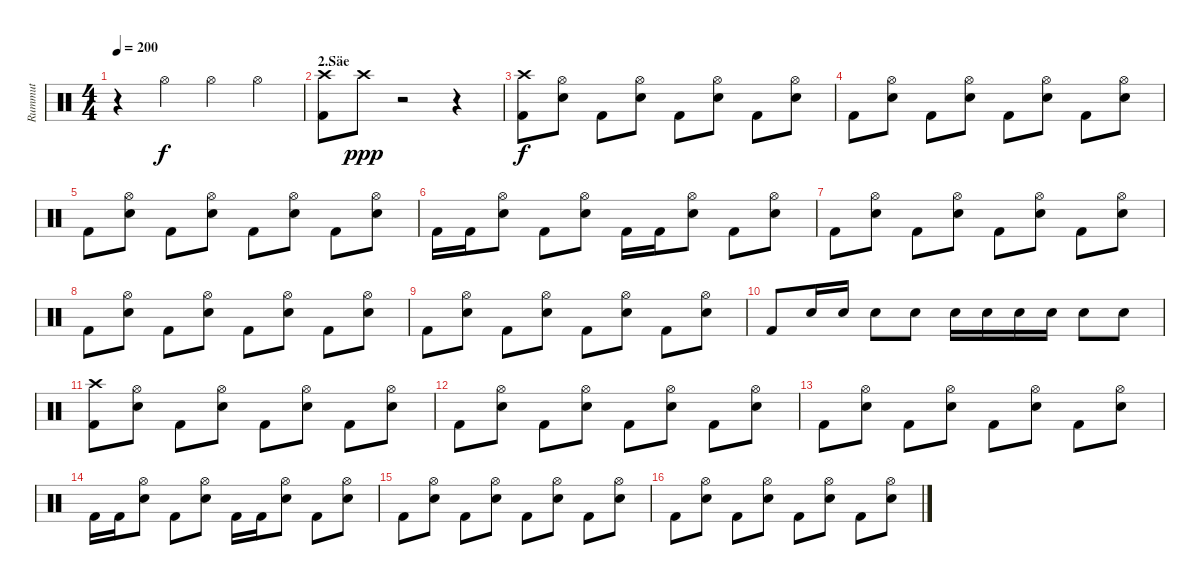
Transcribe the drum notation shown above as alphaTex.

\track ("Rummut" "Rummut") {instrument percussion}
\staff {score}
\articulation defaults
\ts (4 4)
\tempo 200
\clef neutral
\ks c
r.4{dy f} "Hi-Hat (open)".4 "Hi-Hat (open)".4 "Hi-Hat (open)".4 |
\section ("" "2.Säe")
("Crash high (hit)" "Kick (hit) 2").8 "Crash high (hit)".8{dy ppp} r.2 r.4 |
("Crash high (hit)" "Kick (hit) 2").8{dy f} ("Hi-Hat (open)" "Electric Snare (hit)").8 "Kick (hit) 2".8 ("Hi-Hat (open)" "Electric Snare (hit)").8 "Kick (hit) 2".8 ("Hi-Hat (open)" "Electric Snare (hit)").8 "Kick (hit) 2".8 ("Hi-Hat (open)" "Electric Snare (hit)").8 |
"Kick (hit) 2".8 ("Hi-Hat (open)" "Electric Snare (hit)").8 "Kick (hit) 2".8 ("Hi-Hat (open)" "Electric Snare (hit)").8 "Kick (hit) 2".8 ("Hi-Hat (open)" "Electric Snare (hit)").8 "Kick (hit) 2".8 ("Hi-Hat (open)" "Electric Snare (hit)").8 |
"Kick (hit) 2".8 ("Hi-Hat (open)" "Electric Snare (hit)").8 "Kick (hit) 2".8 ("Hi-Hat (open)" "Electric Snare (hit)").8 "Kick (hit) 2".8 ("Hi-Hat (open)" "Electric Snare (hit)").8 "Kick (hit) 2".8 ("Hi-Hat (open)" "Electric Snare (hit)").8 |
"Kick (hit) 2".16 "Kick (hit) 2".16 ("Hi-Hat (open)" "Electric Snare (hit)").8 "Kick (hit) 2".8 ("Hi-Hat (open)" "Electric Snare (hit)").8 "Kick (hit) 2".16 "Kick (hit) 2".16 ("Hi-Hat (open)" "Electric Snare (hit)").8 "Kick (hit) 2".8 ("Hi-Hat (open)" "Electric Snare (hit)").8 |
"Kick (hit) 2".8 ("Hi-Hat (open)" "Electric Snare (hit)").8 "Kick (hit) 2".8 ("Hi-Hat (open)" "Electric Snare (hit)").8 "Kick (hit) 2".8 ("Hi-Hat (open)" "Electric Snare (hit)").8 "Kick (hit) 2".8 ("Hi-Hat (open)" "Electric Snare (hit)").8 |
"Kick (hit) 2".8 ("Hi-Hat (open)" "Electric Snare (hit)").8 "Kick (hit) 2".8 ("Hi-Hat (open)" "Electric Snare (hit)").8 "Kick (hit) 2".8 ("Hi-Hat (open)" "Electric Snare (hit)").8 "Kick (hit) 2".8 ("Hi-Hat (open)" "Electric Snare (hit)").8 |
"Kick (hit) 2".8 ("Hi-Hat (open)" "Electric Snare (hit)").8 "Kick (hit) 2".8 ("Hi-Hat (open)" "Electric Snare (hit)").8 "Kick (hit) 2".8 ("Hi-Hat (open)" "Electric Snare (hit)").8 "Kick (hit) 2".8 ("Hi-Hat (open)" "Electric Snare (hit)").8 |
"Kick (hit) 2".8 "Electric Snare (hit)".16 "Electric Snare (hit)".16 "Electric Snare (hit)".8 "Electric Snare (hit)".8 "Electric Snare (hit)".16 "Electric Snare (hit)".16 "Electric Snare (hit)".16 "Electric Snare (hit)".16 "Electric Snare (hit)".8 "Electric Snare (hit)".8 |
("Crash high (hit)" "Kick (hit) 2").8 ("Hi-Hat (open)" "Electric Snare (hit)").8 "Kick (hit) 2".8 ("Hi-Hat (open)" "Electric Snare (hit)").8 "Kick (hit) 2".8 ("Hi-Hat (open)" "Electric Snare (hit)").8 "Kick (hit) 2".8 ("Hi-Hat (open)" "Electric Snare (hit)").8 |
"Kick (hit) 2".8 ("Hi-Hat (open)" "Electric Snare (hit)").8 "Kick (hit) 2".8 ("Hi-Hat (open)" "Electric Snare (hit)").8 "Kick (hit) 2".8 ("Hi-Hat (open)" "Electric Snare (hit)").8 "Kick (hit) 2".8 ("Hi-Hat (open)" "Electric Snare (hit)").8 |
"Kick (hit) 2".8 ("Hi-Hat (open)" "Electric Snare (hit)").8 "Kick (hit) 2".8 ("Hi-Hat (open)" "Electric Snare (hit)").8 "Kick (hit) 2".8 ("Hi-Hat (open)" "Electric Snare (hit)").8 "Kick (hit) 2".8 ("Hi-Hat (open)" "Electric Snare (hit)").8 |
"Kick (hit) 2".16 "Kick (hit) 2".16 ("Hi-Hat (open)" "Electric Snare (hit)").8 "Kick (hit) 2".8 ("Hi-Hat (open)" "Electric Snare (hit)").8 "Kick (hit) 2".16 "Kick (hit) 2".16 ("Hi-Hat (open)" "Electric Snare (hit)").8 "Kick (hit) 2".8 ("Hi-Hat (open)" "Electric Snare (hit)").8 |
"Kick (hit) 2".8 ("Hi-Hat (open)" "Electric Snare (hit)").8 "Kick (hit) 2".8 ("Hi-Hat (open)" "Electric Snare (hit)").8 "Kick (hit) 2".8 ("Hi-Hat (open)" "Electric Snare (hit)").8 "Kick (hit) 2".8 ("Hi-Hat (open)" "Electric Snare (hit)").8 |
"Kick (hit) 2".8 ("Hi-Hat (open)" "Electric Snare (hit)").8 "Kick (hit) 2".8 ("Hi-Hat (open)" "Electric Snare (hit)").8 "Kick (hit) 2".8 ("Hi-Hat (open)" "Electric Snare (hit)").8 "Kick (hit) 2".8 ("Hi-Hat (open)" "Electric Snare (hit)").8
